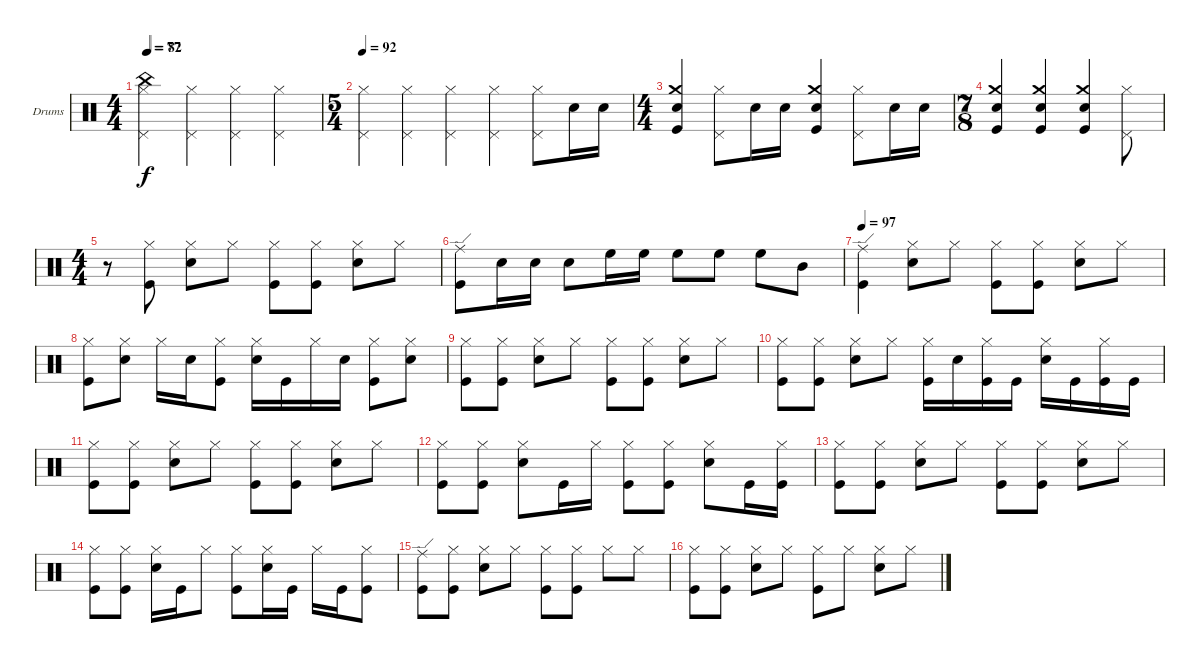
\defaultSystemsLayout 4
\bracketExtendMode groupsimilarinstruments
\firstSystemTrackNameOrientation horizontal
\otherSystemsTrackNameOrientation horizontal
\track ("Drums [Jason]" "Drums") {instrument percussion}
\staff {score}
\articulation defaults
\ts (4 4)
\tempo 77
\tempo (82 0.00625)
\clef neutral
\ks c
("Hi-Hat (closed)" "Pedal Hi-Hat (hit)" "China (hit)").4{dy f} ("Hi-Hat (closed)" "Pedal Hi-Hat (hit)").4 ("Hi-Hat (closed)" "Pedal Hi-Hat (hit)").4 ("Hi-Hat (closed)" "Pedal Hi-Hat (hit)").4 |
\ts (5 4)
\tempo 92
("Hi-Hat (closed)" "Pedal Hi-Hat (hit)").4 ("Hi-Hat (closed)" "Pedal Hi-Hat (hit)").4 ("Hi-Hat (closed)" "Pedal Hi-Hat (hit)").4 ("Hi-Hat (closed)" "Pedal Hi-Hat (hit)").4 ("Hi-Hat (closed)" "Pedal Hi-Hat (hit)").8 "Snare (hit) 2".16 "Snare (hit) 2".16 |
\ts (4 4)
("Crash medium (hit)" "Snare (hit) 2" "Kick (hit)").4 ("Hi-Hat (closed)" "Pedal Hi-Hat (hit)").8 "Snare (hit) 2".16 "Snare (hit) 2".16 ("Crash medium (hit)" "Snare (hit) 2" "Kick (hit)").4 ("Hi-Hat (closed)" "Pedal Hi-Hat (hit)").8 "Snare (hit) 2".16 "Snare (hit) 2".16 |
\ts (7 8)
("Crash medium (hit)" "Snare (hit) 2" "Kick (hit)").4 ("Crash medium (hit)" "Snare (hit) 2" "Kick (hit)").4 ("Crash medium (hit)" "Snare (hit) 2" "Kick (hit)").4 ("Hi-Hat (closed)" "Pedal Hi-Hat (hit)").8 |
\ts (4 4)
r.8 ("Hi-Hat (closed)" "Kick (hit)").8 ("Hi-Hat (closed)" "Snare (hit) 2").8 "Hi-Hat (closed)".8 ("Hi-Hat (closed)" "Kick (hit)").8 ("Hi-Hat (closed)" "Kick (hit)").8 ("Hi-Hat (closed)" "Snare (hit) 2").8 "Hi-Hat (closed)".8 |
("Ride (edge)" "Kick (hit)").8 "Snare (hit) 2".16 "Snare (hit) 2".16 "Snare (hit) 2".8 "High Floor Tom (hit)".16 "High Floor Tom (hit)".16 "High Floor Tom (hit)".8 "High Floor Tom (hit)".8 "High Floor Tom (hit)".8 "Mid Tom (hit)".8 |
\tempo 97
("Ride (edge)" "Kick (hit)").4 ("Hi-Hat (closed)" "Snare (hit) 2").8 "Hi-Hat (closed)".8 ("Hi-Hat (closed)" "Kick (hit)").8 ("Hi-Hat (closed)" "Kick (hit)").8 ("Hi-Hat (closed)" "Snare (hit) 2").8 "Hi-Hat (closed)".8 |
("Hi-Hat (closed)" "Kick (hit)").8 ("Hi-Hat (closed)" "Snare (hit) 2").8 "Hi-Hat (closed)".16 "Snare (hit) 2".16 ("Hi-Hat (closed)" "Kick (hit)").8 ("Hi-Hat (closed)" "Snare (hit) 2").16 "Kick (hit)".16 "Hi-Hat (closed)".16 "Snare (hit) 2".16 ("Hi-Hat (closed)" "Kick (hit)").8 ("Hi-Hat (closed)" "Snare (hit) 2").8 |
("Hi-Hat (closed)" "Kick (hit)").8 ("Hi-Hat (closed)" "Kick (hit)").8 ("Hi-Hat (closed)" "Snare (hit) 2").8 "Hi-Hat (closed)".8 ("Hi-Hat (closed)" "Kick (hit)").8 ("Hi-Hat (closed)" "Kick (hit)").8 ("Hi-Hat (closed)" "Snare (hit) 2").8 "Hi-Hat (closed)".8 |
("Hi-Hat (closed)" "Kick (hit)").8 ("Hi-Hat (closed)" "Kick (hit)").8 ("Hi-Hat (closed)" "Snare (hit) 2").8 "Hi-Hat (closed)".8 ("Hi-Hat (closed)" "Kick (hit)").16 "Snare (hit) 2".16 ("Hi-Hat (closed)" "Kick (hit)").16 "Kick (hit)".16 ("Hi-Hat (closed)" "Snare (hit) 2").16 "Kick (hit)".16 ("Hi-Hat (closed)" "Kick (hit)").16 "Kick (hit)".16 |
("Hi-Hat (closed)" "Kick (hit)").8 ("Hi-Hat (closed)" "Kick (hit)").8 ("Hi-Hat (closed)" "Snare (hit) 2").8 "Hi-Hat (closed)".8 ("Hi-Hat (closed)" "Kick (hit)").8 ("Hi-Hat (closed)" "Kick (hit)").8 ("Hi-Hat (closed)" "Snare (hit) 2").8 "Hi-Hat (closed)".8 |
("Hi-Hat (closed)" "Kick (hit)").8 ("Hi-Hat (closed)" "Kick (hit)").8 ("Hi-Hat (closed)" "Snare (hit) 2").8 "Kick (hit)".16 "Hi-Hat (closed)".16 ("Hi-Hat (closed)" "Kick (hit)").8 ("Hi-Hat (closed)" "Kick (hit)").8 ("Hi-Hat (closed)" "Snare (hit) 2").8 "Kick (hit)".16 ("Hi-Hat (closed)" "Kick (hit)").16 |
("Hi-Hat (closed)" "Kick (hit)").8 ("Hi-Hat (closed)" "Kick (hit)").8 ("Hi-Hat (closed)" "Snare (hit) 2").8 "Hi-Hat (closed)".8 ("Hi-Hat (closed)" "Kick (hit)").8 ("Hi-Hat (closed)" "Kick (hit)").8 ("Hi-Hat (closed)" "Snare (hit) 2").8 "Hi-Hat (closed)".8 |
("Hi-Hat (closed)" "Kick (hit)").8 ("Hi-Hat (closed)" "Kick (hit)").8 ("Hi-Hat (closed)" "Snare (hit) 2").16 "Kick (hit)".16 "Hi-Hat (closed)".8 ("Hi-Hat (closed)" "Kick (hit)").8 ("Hi-Hat (closed)" "Snare (hit) 2").16 "Kick (hit)".16 "Hi-Hat (closed)".16 "Kick (hit)".16 ("Hi-Hat (closed)" "Kick (hit)").8 |
("Ride (edge)" "Kick (hit)").8 ("Hi-Hat (closed)" "Kick (hit)").8 ("Hi-Hat (closed)" "Snare (hit) 2").8 "Hi-Hat (closed)".8 ("Hi-Hat (closed)" "Kick (hit)").8 ("Hi-Hat (closed)" "Kick (hit)").8 "Hi-Hat (closed)".8 "Hi-Hat (closed)".8 |
("Hi-Hat (closed)" "Kick (hit)").8 ("Hi-Hat (closed)" "Kick (hit)").8 ("Hi-Hat (closed)" "Snare (hit) 2").8 "Hi-Hat (closed)".8 ("Hi-Hat (closed)" "Kick (hit)").8 "Hi-Hat (closed)".8 ("Hi-Hat (closed)" "Snare (hit) 2").8 "Hi-Hat (closed)".8
